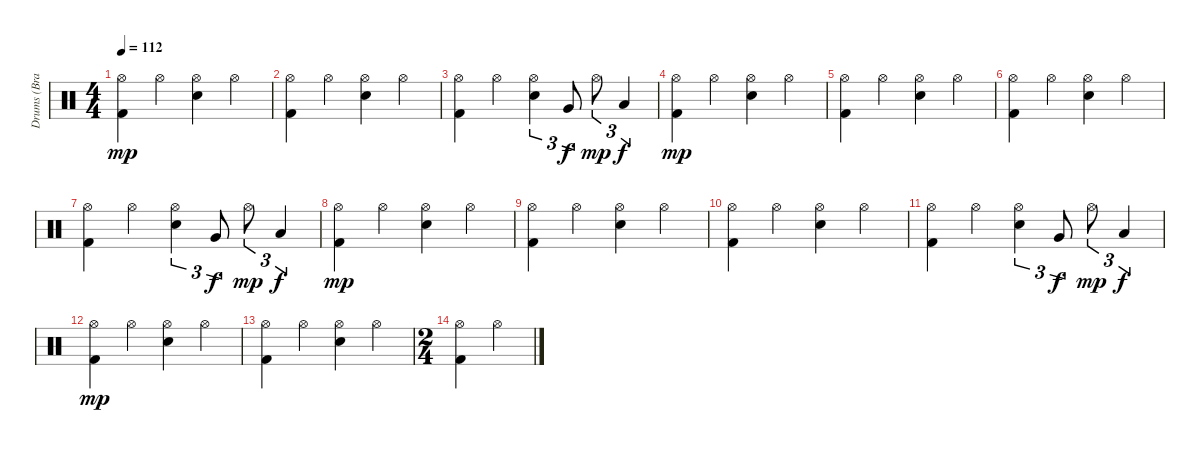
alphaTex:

\track ("Drums (Brandon Saller)" "Drums (Bra") {instrument percussion}
\staff {score}
\articulation defaults
\ts (4 4)
\tempo 112
\clef neutral
\ks c
("Hi-Hat (open)" "Kick (hit) 2").4{dy mp} "Hi-Hat (open)".4 ("Hi-Hat (open)" "Electric Snare (hit)").4 "Hi-Hat (open)".4 |
("Hi-Hat (open)" "Kick (hit) 2").4 "Hi-Hat (open)".4 ("Hi-Hat (open)" "Electric Snare (hit)").4 "Hi-Hat (open)".4 |
("Hi-Hat (open)" "Kick (hit) 2").4 "Hi-Hat (open)".4 ("Hi-Hat (open)" "Electric Snare (hit)").4{tu (3 2)} "Very Low Tom (hit)".8{tu (3 2) dy f} "Hi-Hat (open)".8{tu (3 2) dy mp} "Low Floor Tom (hit)".4{tu (3 2) dy f} |
("Hi-Hat (open)" "Kick (hit) 2").4{dy mp} "Hi-Hat (open)".4 ("Hi-Hat (open)" "Electric Snare (hit)").4 "Hi-Hat (open)".4 |
("Hi-Hat (open)" "Kick (hit) 2").4 "Hi-Hat (open)".4 ("Hi-Hat (open)" "Electric Snare (hit)").4 "Hi-Hat (open)".4 |
("Hi-Hat (open)" "Kick (hit) 2").4 "Hi-Hat (open)".4 ("Hi-Hat (open)" "Electric Snare (hit)").4 "Hi-Hat (open)".4 |
("Hi-Hat (open)" "Kick (hit) 2").4 "Hi-Hat (open)".4 ("Hi-Hat (open)" "Electric Snare (hit)").4{tu (3 2)} "Very Low Tom (hit)".8{tu (3 2) dy f} "Hi-Hat (open)".8{tu (3 2) dy mp} "Low Floor Tom (hit)".4{tu (3 2) dy f} |
("Hi-Hat (open)" "Kick (hit) 2").4{dy mp} "Hi-Hat (open)".4 ("Hi-Hat (open)" "Electric Snare (hit)").4 "Hi-Hat (open)".4 |
("Hi-Hat (open)" "Kick (hit) 2").4 "Hi-Hat (open)".4 ("Hi-Hat (open)" "Electric Snare (hit)").4 "Hi-Hat (open)".4 |
("Hi-Hat (open)" "Kick (hit) 2").4 "Hi-Hat (open)".4 ("Hi-Hat (open)" "Electric Snare (hit)").4 "Hi-Hat (open)".4 |
("Hi-Hat (open)" "Kick (hit) 2").4 "Hi-Hat (open)".4 ("Hi-Hat (open)" "Electric Snare (hit)").4{tu (3 2)} "Very Low Tom (hit)".8{tu (3 2) dy f} "Hi-Hat (open)".8{tu (3 2) dy mp} "Low Floor Tom (hit)".4{tu (3 2) dy f} |
("Hi-Hat (open)" "Kick (hit) 2").4{dy mp} "Hi-Hat (open)".4 ("Hi-Hat (open)" "Electric Snare (hit)").4 "Hi-Hat (open)".4 |
("Hi-Hat (open)" "Kick (hit) 2").4 "Hi-Hat (open)".4 ("Hi-Hat (open)" "Electric Snare (hit)").4 "Hi-Hat (open)".4 |
\ts (2 4)
("Hi-Hat (open)" "Kick (hit) 2").4 "Hi-Hat (open)".4
